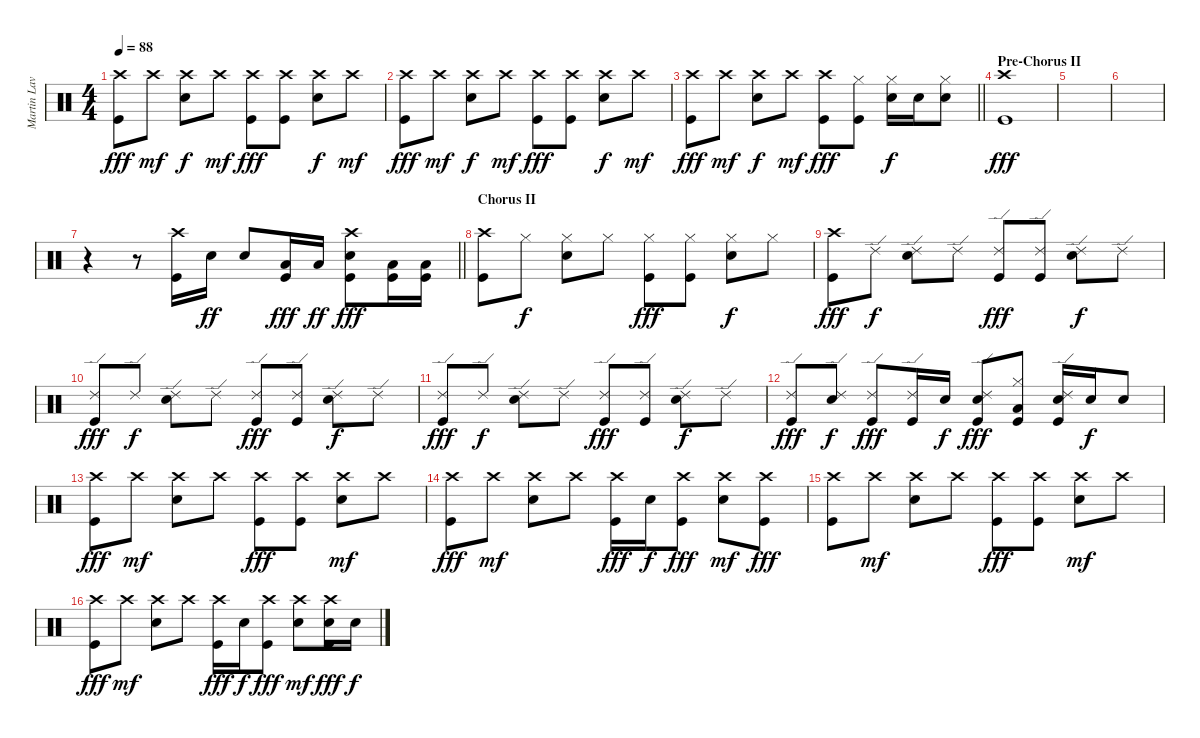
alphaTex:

\track ("Martin Lavalle" "Martin Lav") {instrument percussion}
\staff {score}
\articulation defaults
\ts (4 4)
\tempo 88
\clef neutral
\ks c
("Crash high (hit)" "Kick (hit)").8{dy fff} "Crash high (hit)".8{dy mf} ("Crash high (hit)" "Snare (hit) 2").8{dy f} "Crash high (hit)".8{dy mf} ("Crash high (hit)" "Kick (hit)").8{dy fff} ("Crash high (hit)" "Kick (hit)").8 ("Crash high (hit)" "Snare (hit) 2").8{dy f} "Crash high (hit)".8{dy mf} |
("Crash high (hit)" "Kick (hit)").8{dy fff} "Crash high (hit)".8{dy mf} ("Crash high (hit)" "Snare (hit) 2").8{dy f} "Crash high (hit)".8{dy mf} ("Crash high (hit)" "Kick (hit)").8{dy fff} ("Crash high (hit)" "Kick (hit)").8 ("Crash high (hit)" "Snare (hit) 2").8{dy f} "Crash high (hit)".8{dy mf} |
\barLineRight lightlight
("Crash high (hit)" "Kick (hit)").8{dy fff} "Crash high (hit)".8{dy mf} ("Crash high (hit)" "Snare (hit) 2").8{dy f} "Crash high (hit)".8{dy mf} ("Crash high (hit)" "Kick (hit)").8{dy fff} ("Hi-Hat (closed)" "Kick (hit)").8 ("Hi-Hat (closed)" "Snare (hit) 2").16{dy f} "Snare (hit) 2".16 ("Hi-Hat (closed)" "Snare (hit) 2").8 |
\section ("" "Pre-Chorus II")
("Crash high (hit)" "Kick (hit)").1{dy fff} |
|
|
\barLineRight lightlight
r.4 r.8 ("Crash high (hit)" "Kick (hit)").16 "Snare (hit) 2".16{dy ff} "Snare (hit) 2".8 ("Low Tom (hit)" "Kick (hit)").16{dy fff} "Low Tom (hit)".16{dy ff} ("Crash high (hit)" "Snare (hit) 2" "Kick (hit)").8{dy fff} ("Low Tom (hit)" "Kick (hit)").16 ("Low Tom (hit)" "Kick (hit)").16 |
\section ("" "Chorus II")
("Crash high (hit)" "Kick (hit)").8 "Hi-Hat (closed)".8{dy f} ("Hi-Hat (closed)" "Snare (hit) 2").8 "Hi-Hat (closed)".8 ("Hi-Hat (closed)" "Kick (hit)").8{dy fff} ("Hi-Hat (closed)" "Kick (hit)").8 ("Hi-Hat (closed)" "Snare (hit) 2").8{dy f} "Hi-Hat (closed)".8 |
("Crash high (hit)" "Kick (hit)").8{dy fff} "Ride (edge) 2".8{dy f} ("Ride (edge) 2" "Snare (hit) 2").8 "Ride (edge) 2".8 ("Ride (edge) 2" "Kick (hit)").8{dy fff} ("Ride (edge) 2" "Kick (hit)").8 ("Ride (edge) 2" "Snare (hit) 2").8{dy f} "Ride (edge) 2".8 |
("Ride (edge) 2" "Kick (hit)").8{dy fff} "Ride (edge) 2".8{dy f} ("Ride (edge) 2" "Snare (hit) 2").8 "Ride (edge) 2".8 ("Ride (edge) 2" "Kick (hit)").8{dy fff} ("Ride (edge) 2" "Kick (hit)").8 ("Ride (edge) 2" "Snare (hit) 2").8{dy f} "Ride (edge) 2".8 |
("Ride (edge) 2" "Kick (hit)").8{dy fff} "Ride (edge) 2".8{dy f} ("Ride (edge) 2" "Snare (hit) 2").8 "Ride (edge) 2".8 ("Ride (edge) 2" "Kick (hit)").8{dy fff} ("Ride (edge) 2" "Kick (hit)").8 ("Ride (edge) 2" "Snare (hit) 2").8{dy f} "Ride (edge) 2".8 |
("Ride (edge) 2" "Kick (hit)").8{dy fff} ("Ride (edge) 2" "Snare (hit) 2").8{dy f} ("Ride (edge) 2" "Kick (hit)").8{dy fff} ("Ride (edge) 2" "Kick (hit)").16 "Snare (hit) 2".16{dy f} ("Ride (edge) 2" "Snare (hit) 2" "Kick (hit)").8{dy fff} ("Hi-Hat (closed)" "Low Tom (hit)" "Kick (hit)").8 ("Ride (edge) 2" "Snare (hit) 2" "Kick (hit)").16 "Snare (hit) 2".16{dy f} "Snare (hit) 2".8 |
("Crash high (hit)" "Kick (hit)").8{dy fff} "Crash high (hit)".8{dy mf} ("Crash high (hit)" "Snare (hit) 2").8 "Crash high (hit)".8 ("Crash high (hit)" "Kick (hit)").8{dy fff} ("Crash high (hit)" "Kick (hit)").8 ("Crash high (hit)" "Snare (hit) 2").8{dy mf} "Crash high (hit)".8 |
("Crash high (hit)" "Kick (hit)").8{dy fff} "Crash high (hit)".8{dy mf} ("Crash high (hit)" "Snare (hit) 2").8 "Crash high (hit)".8 ("Crash high (hit)" "Kick (hit)").16{dy fff} "Snare (hit) 2".16{dy f} ("Crash high (hit)" "Kick (hit)").8{dy fff} ("Crash high (hit)" "Snare (hit) 2").8{dy mf} ("Crash high (hit)" "Kick (hit)").8{dy fff} |
("Crash high (hit)" "Kick (hit)").8 "Crash high (hit)".8{dy mf} ("Crash high (hit)" "Snare (hit) 2").8 "Crash high (hit)".8 ("Crash high (hit)" "Kick (hit)").8{dy fff} ("Crash high (hit)" "Kick (hit)").8 ("Crash high (hit)" "Snare (hit) 2").8{dy mf} "Crash high (hit)".8 |
("Crash high (hit)" "Kick (hit)").8{dy fff} "Crash high (hit)".8{dy mf} ("Crash high (hit)" "Snare (hit) 2").8 "Crash high (hit)".8 ("Crash high (hit)" "Kick (hit)").16{dy fff} "Snare (hit) 2".16{dy f} ("Crash high (hit)" "Kick (hit)").8{dy fff} ("Crash high (hit)" "Snare (hit) 2").8{dy mf} ("Crash high (hit)" "Snare (hit) 2" "Kick (hit)").16{dy fff} "Snare (hit) 2".16{dy f}
